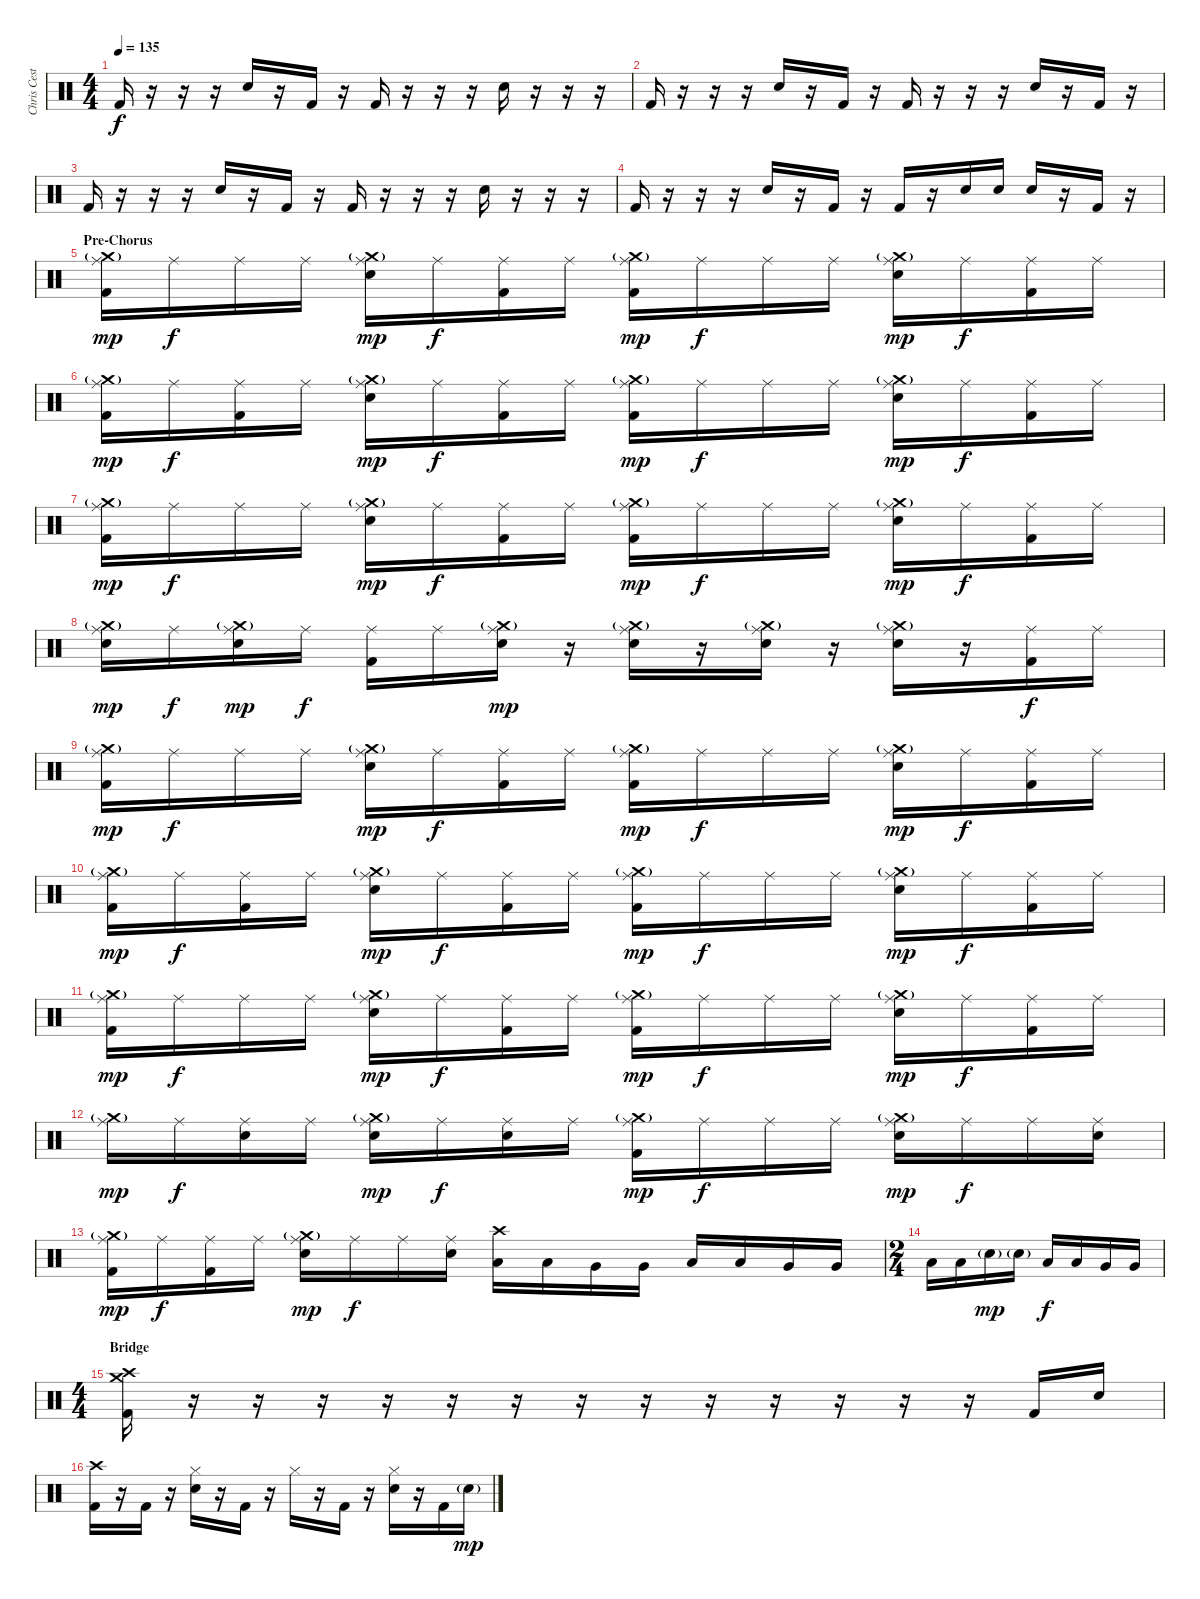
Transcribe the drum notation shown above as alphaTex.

\track ("Chris Cester - Drums" "Chris Cest") {instrument percussion}
\staff {score}
\articulation defaults
\ts (4 4)
\tempo 135
\clef neutral
\ks c "Kick (hit) 2".16{dy f}
r.16 r.16 r.16 "Electric Snare (hit)".16 r.16 "Kick (hit) 2".16 r.16 "Kick (hit) 2".16 r.16 r.16 r.16 "Electric Snare (hit)".16 r.16 r.16 r.16 |
"Kick (hit) 2".16 r.16 r.16 r.16 "Electric Snare (hit)".16 r.16 "Kick (hit) 2".16 r.16 "Kick (hit) 2".16 r.16 r.16 r.16 "Electric Snare (hit)".16 r.16 "Kick (hit) 2".16 r.16 |
"Kick (hit) 2".16 r.16 r.16 r.16 "Electric Snare (hit)".16 r.16 "Kick (hit) 2".16 r.16 "Kick (hit) 2".16 r.16 r.16 r.16 "Electric Snare (hit)".16 r.16 r.16 r.16 |
"Kick (hit) 2".16 r.16 r.16 r.16 "Electric Snare (hit)".16 r.16 "Kick (hit) 2".16 r.16 "Kick (hit) 2".16 r.16 "Electric Snare (hit)".16 "Electric Snare (hit)".16 "Electric Snare (hit)".16 r.16 "Kick (hit) 2".16 r.16 |
\section ("" "Pre-Chorus")
("Ride (middle)" "Crash medium (hit)"{g} "Kick (hit) 2").16{dy mp} "Ride (middle)".16{dy f} "Ride (middle)".16 "Ride (middle)".16 ("Ride (middle)" "Crash medium (hit)"{g} "Electric Snare (hit)").16{dy mp} "Ride (middle)".16{dy f} ("Ride (middle)" "Kick (hit) 2").16 "Ride (middle)".16 ("Ride (middle)" "Crash medium (hit)"{g} "Kick (hit) 2").16{dy mp} "Ride (middle)".16{dy f} "Ride (middle)".16 "Ride (middle)".16 ("Ride (middle)" "Crash medium (hit)"{g} "Electric Snare (hit)").16{dy mp} "Ride (middle)".16{dy f} ("Ride (middle)" "Kick (hit) 2").16 "Ride (middle)".16 |
("Ride (middle)" "Crash medium (hit)"{g} "Kick (hit) 2").16{dy mp} "Ride (middle)".16{dy f} ("Ride (middle)" "Kick (hit) 2").16 "Ride (middle)".16 ("Ride (middle)" "Crash medium (hit)"{g} "Electric Snare (hit)").16{dy mp} "Ride (middle)".16{dy f} ("Ride (middle)" "Kick (hit) 2").16 "Ride (middle)".16 ("Ride (middle)" "Crash medium (hit)"{g} "Kick (hit) 2").16{dy mp} "Ride (middle)".16{dy f} "Ride (middle)".16 "Ride (middle)".16 ("Ride (middle)" "Crash medium (hit)"{g} "Electric Snare (hit)").16{dy mp} "Ride (middle)".16{dy f} ("Ride (middle)" "Kick (hit) 2").16 "Ride (middle)".16 |
("Ride (middle)" "Crash medium (hit)"{g} "Kick (hit) 2").16{dy mp} "Ride (middle)".16{dy f} "Ride (middle)".16 "Ride (middle)".16 ("Ride (middle)" "Crash medium (hit)"{g} "Electric Snare (hit)").16{dy mp} "Ride (middle)".16{dy f} ("Ride (middle)" "Kick (hit) 2").16 "Ride (middle)".16 ("Ride (middle)" "Crash medium (hit)"{g} "Kick (hit) 2").16{dy mp} "Ride (middle)".16{dy f} "Ride (middle)".16 "Ride (middle)".16 ("Ride (middle)" "Crash medium (hit)"{g} "Electric Snare (hit)").16{dy mp} "Ride (middle)".16{dy f} ("Ride (middle)" "Kick (hit) 2").16 "Ride (middle)".16 |
("Ride (middle)" "Crash medium (hit)"{g} "Electric Snare (hit)").16{dy mp} "Ride (middle)".16{dy f} ("Ride (middle)" "Crash medium (hit)"{g} "Electric Snare (hit)").16{dy mp} "Ride (middle)".16{dy f} ("Ride (middle)" "Kick (hit) 2").16 "Ride (middle)".16 ("Ride (middle)" "Crash medium (hit)"{g} "Electric Snare (hit)").16{dy mp} r.16 ("Ride (middle)" "Crash medium (hit)"{g} "Electric Snare (hit)").16 r.16 ("Ride (middle)" "Crash medium (hit)"{g} "Electric Snare (hit)").16 r.16 ("Ride (middle)" "Crash medium (hit)"{g} "Electric Snare (hit)").16 r.16 ("Ride (middle)" "Kick (hit) 2").16{dy f} "Ride (middle)".16 |
("Ride (middle)" "Crash medium (hit)"{g} "Kick (hit) 2").16{dy mp} "Ride (middle)".16{dy f} "Ride (middle)".16 "Ride (middle)".16 ("Ride (middle)" "Crash medium (hit)"{g} "Electric Snare (hit)").16{dy mp} "Ride (middle)".16{dy f} ("Ride (middle)" "Kick (hit) 2").16 "Ride (middle)".16 ("Ride (middle)" "Crash medium (hit)"{g} "Kick (hit) 2").16{dy mp} "Ride (middle)".16{dy f} "Ride (middle)".16 "Ride (middle)".16 ("Ride (middle)" "Crash medium (hit)"{g} "Electric Snare (hit)").16{dy mp} "Ride (middle)".16{dy f} ("Ride (middle)" "Kick (hit) 2").16 "Ride (middle)".16 |
("Ride (middle)" "Crash medium (hit)"{g} "Kick (hit) 2").16{dy mp} "Ride (middle)".16{dy f} ("Ride (middle)" "Kick (hit) 2").16 "Ride (middle)".16 ("Ride (middle)" "Crash medium (hit)"{g} "Electric Snare (hit)").16{dy mp} "Ride (middle)".16{dy f} ("Ride (middle)" "Kick (hit) 2").16 "Ride (middle)".16 ("Ride (middle)" "Crash medium (hit)"{g} "Kick (hit) 2").16{dy mp} "Ride (middle)".16{dy f} "Ride (middle)".16 "Ride (middle)".16 ("Ride (middle)" "Crash medium (hit)"{g} "Electric Snare (hit)").16{dy mp} "Ride (middle)".16{dy f} ("Ride (middle)" "Kick (hit) 2").16 "Ride (middle)".16 |
("Ride (middle)" "Crash medium (hit)"{g} "Kick (hit) 2").16{dy mp} "Ride (middle)".16{dy f} "Ride (middle)".16 "Ride (middle)".16 ("Ride (middle)" "Crash medium (hit)"{g} "Electric Snare (hit)").16{dy mp} "Ride (middle)".16{dy f} ("Ride (middle)" "Kick (hit) 2").16 "Ride (middle)".16 ("Ride (middle)" "Crash medium (hit)"{g} "Kick (hit) 2").16{dy mp} "Ride (middle)".16{dy f} "Ride (middle)".16 "Ride (middle)".16 ("Ride (middle)" "Crash medium (hit)"{g} "Electric Snare (hit)").16{dy mp} "Ride (middle)".16{dy f} ("Ride (middle)" "Kick (hit) 2").16 "Ride (middle)".16 |
("Ride (middle)" "Crash medium (hit)"{g}).16{dy mp} "Ride (middle)".16{dy f} ("Ride (middle)" "Electric Snare (hit)").16 "Ride (middle)".16 ("Ride (middle)" "Crash medium (hit)"{g} "Electric Snare (hit)").16{dy mp} "Ride (middle)".16{dy f} ("Ride (middle)" "Electric Snare (hit)").16 "Ride (middle)".16 ("Ride (middle)" "Crash medium (hit)"{g} "Kick (hit) 2").16{dy mp} "Ride (middle)".16{dy f} "Ride (middle)".16 "Ride (middle)".16 ("Ride (middle)" "Crash medium (hit)"{g} "Electric Snare (hit)").16{dy mp} "Ride (middle)".16{dy f} "Ride (middle)".16 ("Ride (middle)" "Electric Snare (hit)").16 |
("Ride (middle)" "Crash medium (hit)"{g} "Kick (hit) 2").16{dy mp} "Ride (middle)".16{dy f} ("Ride (middle)" "Kick (hit) 2").16 "Ride (middle)".16 ("Ride (middle)" "Crash medium (hit)"{g} "Electric Snare (hit)").16{dy mp} "Ride (middle)".16{dy f} "Ride (middle)".16 ("Ride (middle)" "Electric Snare (hit)").16 ("Crash high (hit)" "Low Tom (hit)").16 "Low Tom (hit)".16 "Very Low Tom (hit)".16 "Very Low Tom (hit)".16 "Low Tom (hit)".16 "Low Tom (hit)".16 "Very Low Tom (hit)".16 "Very Low Tom (hit)".16 |
\ts (2 4)
"Low Tom (hit)".16 "Low Tom (hit)".16 "Electric Snare (hit)"{g}.16{dy mp} "Electric Snare (hit)"{g}.16 "Low Tom (hit)".16{dy f} "Low Tom (hit)".16 "Very Low Tom (hit)".16 "Very Low Tom (hit)".16 |
\ts (4 4)
\section ("" "Bridge")
("Crash medium (hit)" "Crash high (hit)" "Kick (hit) 2").16 r.16 r.16 r.16 r.16 r.16 r.16 r.16 r.16 r.16 r.16 r.16 r.16 r.16 "Kick (hit) 2".16 "Electric Snare (hit)".16 |
("Crash high (hit)" "Kick (hit) 2").16 r.16 "Kick (hit) 2".16 r.16 ("Hi-Hat (closed)" "Electric Snare (hit)").16 r.16 "Kick (hit) 2".16 r.16 "Hi-Hat (closed)".16 r.16 "Kick (hit) 2".16 r.16 ("Hi-Hat (closed)" "Electric Snare (hit)").16 r.16 "Kick (hit) 2".16 "Electric Snare (hit)"{g}.16{dy mp}
